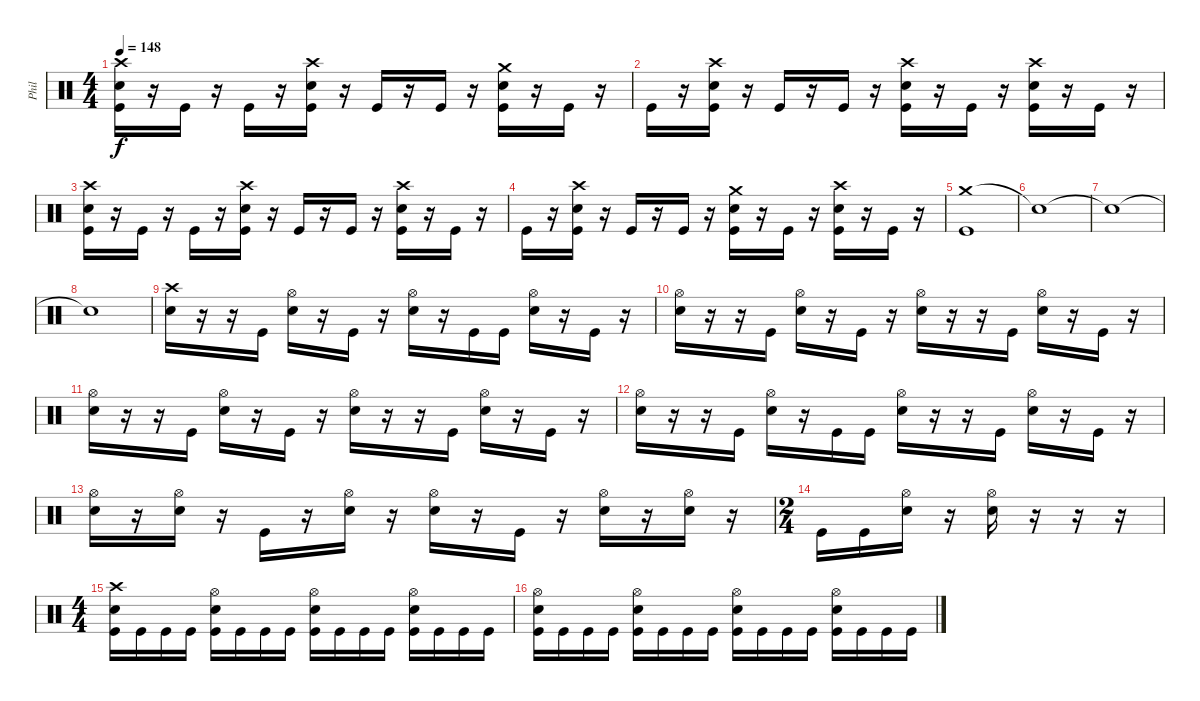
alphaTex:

\track ("Phil" "Phil") {instrument percussion}
\staff {score}
\articulation defaults
\ts (4 4)
\tempo 148
\clef neutral
\ks c
("Crash high (hit)" "Electric Snare (hit)" "Kick (hit)").16{dy f} r.16 "Kick (hit)".16 r.16 "Kick (hit)".16 r.16 ("Crash high (hit)" "Electric Snare (hit)" "Kick (hit)").16 r.16 "Kick (hit)".16 r.16 "Kick (hit)".16 r.16 ("Crash medium (hit)" "Electric Snare (hit)" "Kick (hit)").16 r.16 "Kick (hit)".16 r.16 |
"Kick (hit)".16 r.16 ("Crash high (hit)" "Electric Snare (hit)" "Kick (hit)").16 r.16 "Kick (hit)".16 r.16 "Kick (hit)".16 r.16 ("Crash high (hit)" "Electric Snare (hit)" "Kick (hit)").16 r.16 "Kick (hit)".16 r.16 ("Crash high (hit)" "Electric Snare (hit)" "Kick (hit)").16 r.16 "Kick (hit)".16 r.16 |
("Crash high (hit)" "Electric Snare (hit)" "Kick (hit)").16 r.16 "Kick (hit)".16 r.16 "Kick (hit)".16 r.16 ("Crash high (hit)" "Electric Snare (hit)" "Kick (hit)").16 r.16 "Kick (hit)".16 r.16 "Kick (hit)".16 r.16 ("Crash high (hit)" "Electric Snare (hit)" "Kick (hit)").16 r.16 "Kick (hit)".16 r.16 |
"Kick (hit)".16 r.16 ("Crash high (hit)" "Electric Snare (hit)" "Kick (hit)").16 r.16 "Kick (hit)".16 r.16 "Kick (hit)".16 r.16 ("Crash medium (hit)" "Electric Snare (hit)" "Kick (hit)").16 r.16 "Kick (hit)".16 r.16 ("Crash high (hit)" "Electric Snare (hit)" "Kick (hit)").16 r.16 "Kick (hit)".16 r.16 |
("Crash medium (hit)" "Kick (hit)").1 |
"Snare (hit)"{t}.1 |
"Snare (hit)"{t}.1 |
"Snare (hit)"{t}.1 |
("Crash high (hit)" "Electric Snare (hit)").16 r.16 r.16 "Kick (hit)".16 ("Hi-Hat (open)" "Electric Snare (hit)").16 r.16 "Kick (hit)".16 r.16 ("Hi-Hat (open)" "Electric Snare (hit)").16 r.16 "Kick (hit)".16 "Kick (hit)".16 ("Hi-Hat (open)" "Electric Snare (hit)").16 r.16 "Kick (hit)".16 r.16 |
("Hi-Hat (open)" "Electric Snare (hit)").16 r.16 r.16 "Kick (hit)".16 ("Hi-Hat (open)" "Electric Snare (hit)").16 r.16 "Kick (hit)".16 r.16 ("Hi-Hat (open)" "Electric Snare (hit)").16 r.16 r.16 "Kick (hit)".16 ("Hi-Hat (open)" "Electric Snare (hit)").16 r.16 "Kick (hit)".16 r.16 |
("Hi-Hat (open)" "Electric Snare (hit)").16 r.16 r.16 "Kick (hit)".16 ("Hi-Hat (open)" "Electric Snare (hit)").16 r.16 "Kick (hit)".16 r.16 ("Hi-Hat (open)" "Electric Snare (hit)").16 r.16 r.16 "Kick (hit)".16 ("Hi-Hat (open)" "Electric Snare (hit)").16 r.16 "Kick (hit)".16 r.16 |
("Hi-Hat (open)" "Electric Snare (hit)").16 r.16 r.16 "Kick (hit)".16 ("Hi-Hat (open)" "Electric Snare (hit)").16 r.16 "Kick (hit)".16 "Kick (hit)".16 ("Hi-Hat (open)" "Electric Snare (hit)").16 r.16 r.16 "Kick (hit)".16 ("Hi-Hat (open)" "Electric Snare (hit)").16 r.16 "Kick (hit)".16 r.16 |
("Hi-Hat (open)" "Electric Snare (hit)").16 r.16 ("Hi-Hat (open)" "Electric Snare (hit)").16 r.16 "Kick (hit)".16 r.16 ("Hi-Hat (open)" "Electric Snare (hit)").16 r.16 ("Hi-Hat (open)" "Electric Snare (hit)").16 r.16 "Kick (hit)".16 r.16 ("Hi-Hat (open)" "Electric Snare (hit)").16 r.16 ("Hi-Hat (open)" "Electric Snare (hit)").16 r.16 |
\ts (2 4)
"Kick (hit)".16 "Kick (hit)".16 ("Hi-Hat (open)" "Electric Snare (hit)").16 r.16 ("Hi-Hat (open)" "Electric Snare (hit)").16 r.16 r.16 r.16 |
\ts (4 4)
("Crash high (hit)" "Electric Snare (hit)" "Kick (hit)").16 "Kick (hit)".16 "Kick (hit)".16 "Kick (hit)".16 ("Hi-Hat (open)" "Electric Snare (hit)" "Kick (hit)").16 "Kick (hit)".16 "Kick (hit)".16 "Kick (hit)".16 ("Hi-Hat (open)" "Electric Snare (hit)" "Kick (hit)").16 "Kick (hit)".16 "Kick (hit)".16 "Kick (hit)".16 ("Hi-Hat (open)" "Electric Snare (hit)" "Kick (hit)").16 "Kick (hit)".16 "Kick (hit)".16 "Kick (hit)".16 |
("Hi-Hat (open)" "Electric Snare (hit)" "Kick (hit)").16 "Kick (hit)".16 "Kick (hit)".16 "Kick (hit)".16 ("Hi-Hat (open)" "Electric Snare (hit)" "Kick (hit)").16 "Kick (hit)".16 "Kick (hit)".16 "Kick (hit)".16 ("Hi-Hat (open)" "Electric Snare (hit)" "Kick (hit)").16 "Kick (hit)".16 "Kick (hit)".16 "Kick (hit)".16 ("Hi-Hat (open)" "Electric Snare (hit)" "Kick (hit)").16 "Kick (hit)".16 "Kick (hit)".16 "Kick (hit)".16
